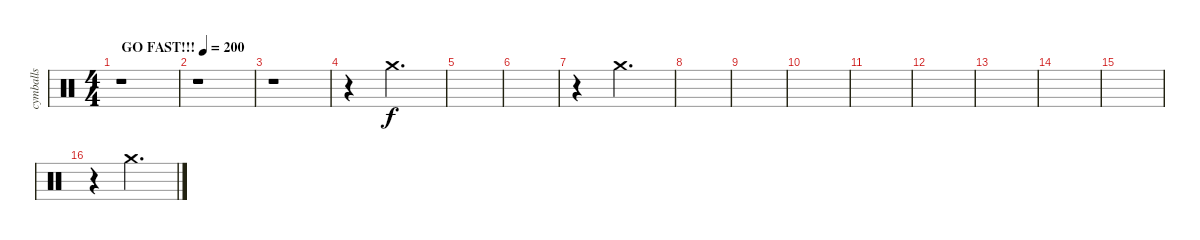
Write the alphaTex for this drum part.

\track ("cymballs" "cymballs") {instrument percussion}
\staff {score}
\articulation defaults
\ts (4 4)
\tempo (200 "GO FAST!!!")
\clef neutral
\ks c
r.1{dy f} |
r.1 |
r.1 |
r.4 "Crash medium (hit)".2{d} |
|
|
r.4 "Crash medium (hit)".2{d} |
|
|
|
|
|
|
|
|
r.4 "Crash medium (hit)".2{d}
